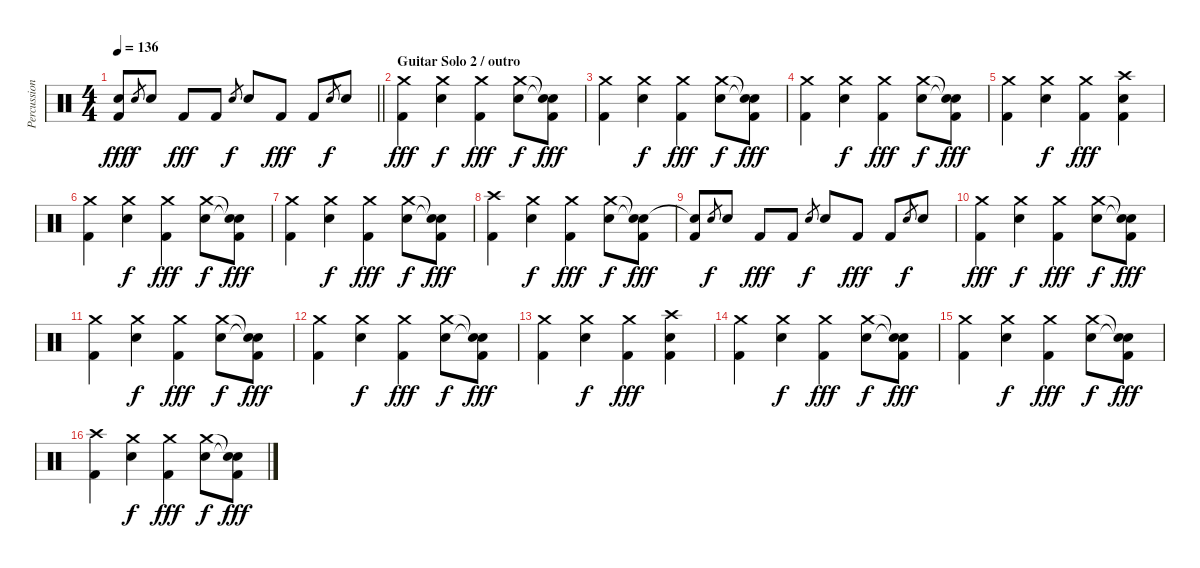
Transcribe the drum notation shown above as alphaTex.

\track ("Percussion" "Percussion") {instrument percussion}
\staff {score}
\articulation defaults
\ts (4 4)
\tempo 136
\clef neutral
\barLineRight lightlight
\ks c
("Snare (hit)"{t} "Kick (hit) 2").8{dy fff} "Electric Snare (hit)".8{gr dy f} "Electric Snare (hit)".8 "Kick (hit) 2".8{dy fff} "Kick (hit) 2".8 "Electric Snare (hit)".8{gr dy f} "Electric Snare (hit)".8 "Kick (hit) 2".8{dy fff} "Kick (hit) 2".8 "Electric Snare (hit)".8{gr dy f} "Electric Snare (hit)".8 |
\section ("" "Guitar Solo 2 / outro")
("Crash medium (hit)" "Kick (hit) 2").4{dy fff} ("Crash medium (hit)" "Electric Snare (hit)").4{dy f} ("Crash medium (hit)" "Kick (hit) 2").4{dy fff} ("Crash medium (hit)" "Electric Snare (hit)").8{dy f} ("Snare (hit)"{t} "Snare (hit)"{t} "Kick (hit) 2").8{dy fff} |
("Crash medium (hit)" "Kick (hit) 2").4 ("Crash medium (hit)" "Electric Snare (hit)").4{dy f} ("Crash medium (hit)" "Kick (hit) 2").4{dy fff} ("Crash medium (hit)" "Electric Snare (hit)").8{dy f} ("Snare (hit)"{t} "Snare (hit)"{t} "Kick (hit) 2").8{dy fff} |
("Crash medium (hit)" "Kick (hit) 2").4 ("Crash medium (hit)" "Electric Snare (hit)").4{dy f} ("Crash medium (hit)" "Kick (hit) 2").4{dy fff} ("Crash medium (hit)" "Electric Snare (hit)").8{dy f} ("Snare (hit)"{t} "Snare (hit)"{t} "Kick (hit) 2").8{dy fff} |
("Crash medium (hit)" "Kick (hit) 2").4 ("Crash medium (hit)" "Electric Snare (hit)").4{dy f} ("Crash medium (hit)" "Kick (hit) 2").4{dy fff} ("Crash high (hit)" "Electric Snare (hit)" "Kick (hit) 2").4 |
("Crash medium (hit)" "Kick (hit) 2").4 ("Crash medium (hit)" "Electric Snare (hit)").4{dy f} ("Crash medium (hit)" "Kick (hit) 2").4{dy fff} ("Crash medium (hit)" "Electric Snare (hit)").8{dy f} ("Snare (hit)"{t} "Snare (hit)"{t} "Kick (hit) 2").8{dy fff} |
("Crash medium (hit)" "Kick (hit) 2").4 ("Crash medium (hit)" "Electric Snare (hit)").4{dy f} ("Crash medium (hit)" "Kick (hit) 2").4{dy fff} ("Crash medium (hit)" "Electric Snare (hit)").8{dy f} ("Snare (hit)"{t} "Snare (hit)"{t} "Kick (hit) 2").8{dy fff} |
("Crash high (hit)" "Kick (hit) 2").4 ("Crash medium (hit)" "Electric Snare (hit)").4{dy f} ("Crash medium (hit)" "Kick (hit) 2").4{dy fff} ("Crash medium (hit)" "Electric Snare (hit)").8{dy f} ("Snare (hit)"{t} "Snare (hit)"{t} "Kick (hit) 2").8{dy fff} |
("Snare (hit)"{t} "Kick (hit) 2").8 "Electric Snare (hit)".8{gr dy f} "Electric Snare (hit)".8 "Kick (hit) 2".8{dy fff} "Kick (hit) 2".8 "Electric Snare (hit)".8{gr dy f} "Electric Snare (hit)".8 "Kick (hit) 2".8{dy fff} "Kick (hit) 2".8 "Electric Snare (hit)".8{gr dy f} "Electric Snare (hit)".8 |
("Crash medium (hit)" "Kick (hit) 2").4{dy fff} ("Crash medium (hit)" "Electric Snare (hit)").4{dy f} ("Crash medium (hit)" "Kick (hit) 2").4{dy fff} ("Crash medium (hit)" "Electric Snare (hit)").8{dy f} ("Snare (hit)"{t} "Snare (hit)"{t} "Kick (hit) 2").8{dy fff} |
("Crash medium (hit)" "Kick (hit) 2").4 ("Crash medium (hit)" "Electric Snare (hit)").4{dy f} ("Crash medium (hit)" "Kick (hit) 2").4{dy fff} ("Crash medium (hit)" "Electric Snare (hit)").8{dy f} ("Snare (hit)"{t} "Snare (hit)"{t} "Kick (hit) 2").8{dy fff} |
("Crash medium (hit)" "Kick (hit) 2").4 ("Crash medium (hit)" "Electric Snare (hit)").4{dy f} ("Crash medium (hit)" "Kick (hit) 2").4{dy fff} ("Crash medium (hit)" "Electric Snare (hit)").8{dy f} ("Snare (hit)"{t} "Snare (hit)"{t} "Kick (hit) 2").8{dy fff} |
("Crash medium (hit)" "Kick (hit) 2").4 ("Crash medium (hit)" "Electric Snare (hit)").4{dy f} ("Crash medium (hit)" "Kick (hit) 2").4{dy fff} ("Crash high (hit)" "Electric Snare (hit)" "Kick (hit) 2").4 |
("Crash medium (hit)" "Kick (hit) 2").4 ("Crash medium (hit)" "Electric Snare (hit)").4{dy f} ("Crash medium (hit)" "Kick (hit) 2").4{dy fff} ("Crash medium (hit)" "Electric Snare (hit)").8{dy f} ("Snare (hit)"{t} "Snare (hit)"{t} "Kick (hit) 2").8{dy fff} |
("Crash medium (hit)" "Kick (hit) 2").4 ("Crash medium (hit)" "Electric Snare (hit)").4{dy f} ("Crash medium (hit)" "Kick (hit) 2").4{dy fff} ("Crash medium (hit)" "Electric Snare (hit)").8{dy f} ("Snare (hit)"{t} "Snare (hit)"{t} "Kick (hit) 2").8{dy fff} |
("Crash high (hit)" "Kick (hit) 2").4 ("Crash medium (hit)" "Electric Snare (hit)").4{dy f} ("Crash medium (hit)" "Kick (hit) 2").4{dy fff} ("Crash medium (hit)" "Electric Snare (hit)").8{dy f} ("Snare (hit)"{t} "Snare (hit)"{t} "Kick (hit) 2").8{dy fff}
